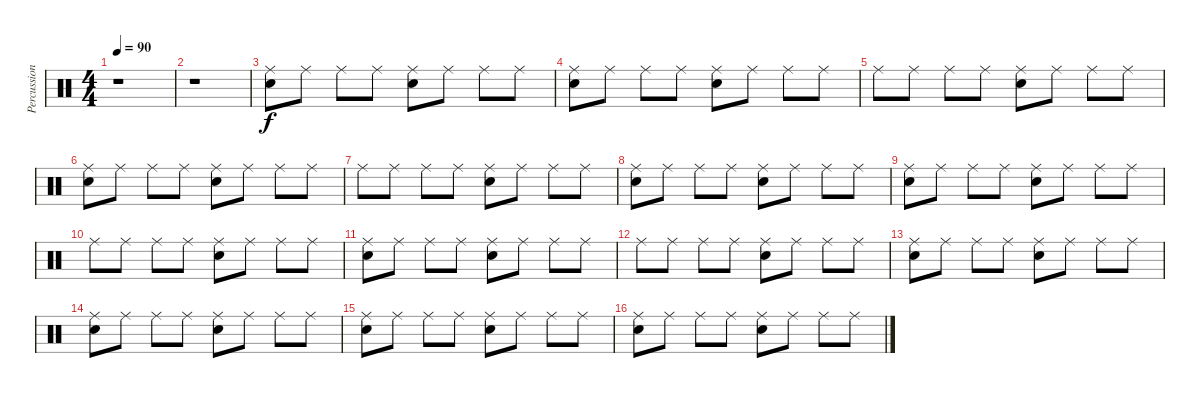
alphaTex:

\track ("Percussion" "Percussion") {instrument percussion}
\staff {score}
\articulation defaults
\ts (4 4)
\tempo 90
\clef neutral
\ks c
r.1{dy f} |
r.1 |
("Snare (hit) 2" "Ride (middle)").8 "Ride (middle)".8 "Ride (middle)".8 "Ride (middle)".8 ("Snare (hit) 2" "Ride (middle)").8 "Ride (middle)".8 "Ride (middle)".8 "Ride (middle)".8 |
("Snare (hit) 2" "Ride (middle)").8 "Ride (middle)".8 "Ride (middle)".8 "Ride (middle)".8 ("Snare (hit) 2" "Ride (middle)").8 "Ride (middle)".8 "Ride (middle)".8 "Ride (middle)".8 |
"Ride (middle)".8 "Ride (middle)".8 "Ride (middle)".8 "Ride (middle)".8 ("Snare (hit) 2" "Ride (middle)").8 "Ride (middle)".8 "Ride (middle)".8 "Ride (middle)".8 |
("Snare (hit) 2" "Ride (middle)").8 "Ride (middle)".8 "Ride (middle)".8 "Ride (middle)".8 ("Snare (hit) 2" "Ride (middle)").8 "Ride (middle)".8 "Ride (middle)".8 "Ride (middle)".8 |
"Ride (middle)".8 "Ride (middle)".8 "Ride (middle)".8 "Ride (middle)".8 ("Snare (hit) 2" "Ride (middle)").8 "Ride (middle)".8 "Ride (middle)".8 "Ride (middle)".8 |
("Snare (hit) 2" "Ride (middle)").8 "Ride (middle)".8 "Ride (middle)".8 "Ride (middle)".8 ("Snare (hit) 2" "Ride (middle)").8 "Ride (middle)".8 "Ride (middle)".8 "Ride (middle)".8 |
("Snare (hit) 2" "Ride (middle)").8 "Ride (middle)".8 "Ride (middle)".8 "Ride (middle)".8 ("Snare (hit) 2" "Ride (middle)").8 "Ride (middle)".8 "Ride (middle)".8 "Ride (middle)".8 |
"Ride (middle)".8 "Ride (middle)".8 "Ride (middle)".8 "Ride (middle)".8 ("Snare (hit) 2" "Ride (middle)").8 "Ride (middle)".8 "Ride (middle)".8 "Ride (middle)".8 |
("Snare (hit) 2" "Ride (middle)").8 "Ride (middle)".8 "Ride (middle)".8 "Ride (middle)".8 ("Snare (hit) 2" "Ride (middle)").8 "Ride (middle)".8 "Ride (middle)".8 "Ride (middle)".8 |
"Ride (middle)".8 "Ride (middle)".8 "Ride (middle)".8 "Ride (middle)".8 ("Snare (hit) 2" "Ride (middle)").8 "Ride (middle)".8 "Ride (middle)".8 "Ride (middle)".8 |
("Snare (hit) 2" "Ride (middle)").8 "Ride (middle)".8 "Ride (middle)".8 "Ride (middle)".8 ("Snare (hit) 2" "Ride (middle)").8 "Ride (middle)".8 "Ride (middle)".8 "Ride (middle)".8 |
("Snare (hit) 2" "Ride (middle)").8 "Ride (middle)".8 "Ride (middle)".8 "Ride (middle)".8 ("Snare (hit) 2" "Ride (middle)").8 "Ride (middle)".8 "Ride (middle)".8 "Ride (middle)".8 |
("Snare (hit) 2" "Ride (middle)").8 "Ride (middle)".8 "Ride (middle)".8 "Ride (middle)".8 ("Snare (hit) 2" "Ride (middle)").8 "Ride (middle)".8 "Ride (middle)".8 "Ride (middle)".8 |
("Snare (hit) 2" "Ride (middle)").8 "Ride (middle)".8 "Ride (middle)".8 "Ride (middle)".8 ("Snare (hit) 2" "Ride (middle)").8 "Ride (middle)".8 "Ride (middle)".8 "Ride (middle)".8
